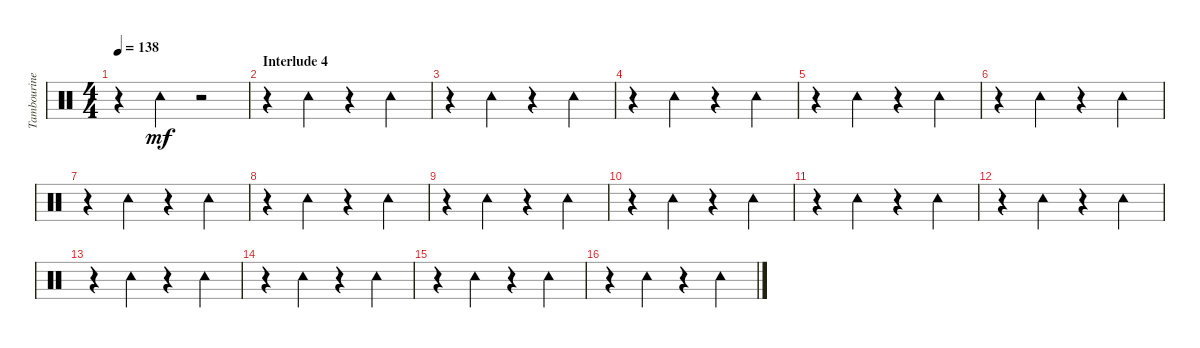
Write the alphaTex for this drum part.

\track ("Tambourine" "Tambourine") {instrument percussion}
\staff {score}
\articulation defaults
\ts (4 4)
\tempo 138
\clef neutral
\ks c
r.4{dy mf} "Tambourine (hit)".4 r.2 |
\section ("" "Interlude 4")
r.4 "Tambourine (hit)".4 r.4 "Tambourine (hit)".4 |
r.4 "Tambourine (hit)".4 r.4 "Tambourine (hit)".4 |
r.4 "Tambourine (hit)".4 r.4 "Tambourine (hit)".4 |
r.4 "Tambourine (hit)".4 r.4 "Tambourine (hit)".4 |
r.4 "Tambourine (hit)".4 r.4 "Tambourine (hit)".4 |
r.4 "Tambourine (hit)".4 r.4 "Tambourine (hit)".4 |
r.4 "Tambourine (hit)".4 r.4 "Tambourine (hit)".4 |
r.4 "Tambourine (hit)".4 r.4 "Tambourine (hit)".4 |
r.4 "Tambourine (hit)".4 r.4 "Tambourine (hit)".4 |
r.4 "Tambourine (hit)".4 r.4 "Tambourine (hit)".4 |
r.4 "Tambourine (hit)".4 r.4 "Tambourine (hit)".4 |
r.4 "Tambourine (hit)".4 r.4 "Tambourine (hit)".4 |
r.4 "Tambourine (hit)".4 r.4 "Tambourine (hit)".4 |
r.4 "Tambourine (hit)".4 r.4 "Tambourine (hit)".4 |
r.4 "Tambourine (hit)".4 r.4 "Tambourine (hit)".4
